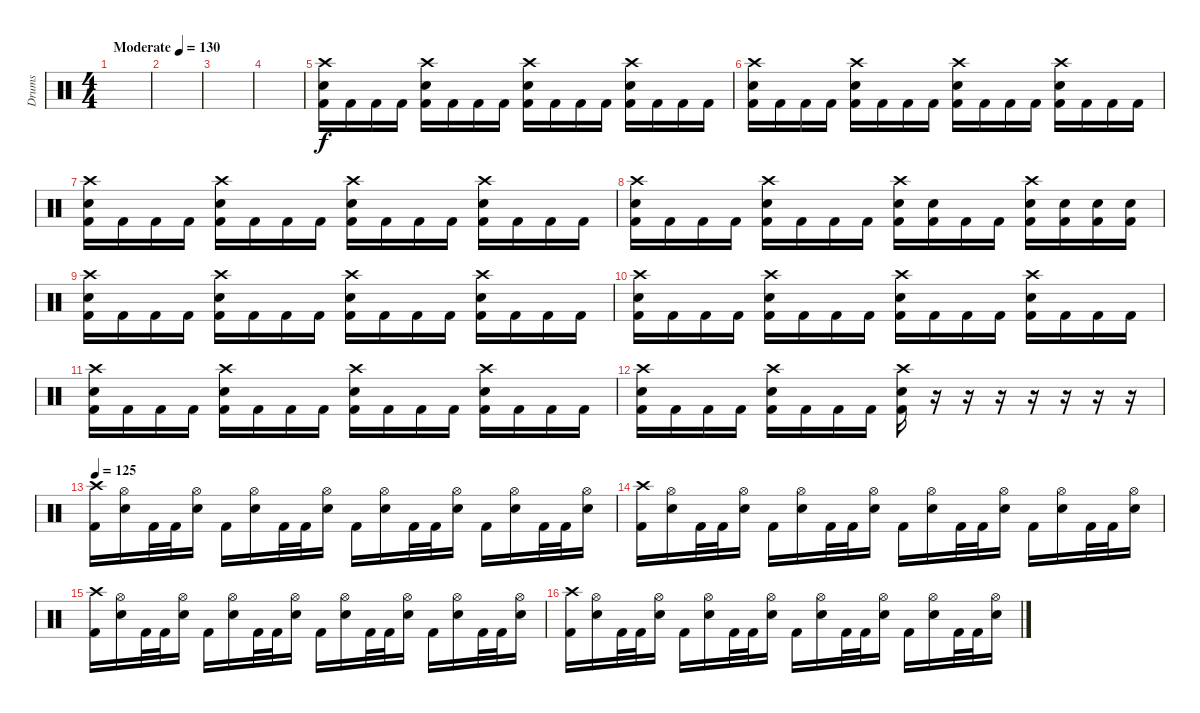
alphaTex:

\track ("Drums" "Drums") {instrument percussion}
\staff {score}
\articulation defaults
\ts (4 4)
\tempo (130 "Moderate")
\clef neutral
\ks c
|
|
|
|
("Crash high (hit)" "Electric Snare (hit)" "Kick (hit) 2").16 "Kick (hit) 2".16 "Kick (hit) 2".16 "Kick (hit) 2".16 ("Crash high (hit)" "Electric Snare (hit)" "Kick (hit) 2").16 "Kick (hit) 2".16 "Kick (hit) 2".16 "Kick (hit) 2".16 ("Crash high (hit)" "Electric Snare (hit)" "Kick (hit) 2").16 "Kick (hit) 2".16 "Kick (hit) 2".16 "Kick (hit) 2".16 ("Crash high (hit)" "Electric Snare (hit)" "Kick (hit) 2").16 "Kick (hit) 2".16 "Kick (hit) 2".16 "Kick (hit) 2".16 |
("Crash high (hit)" "Electric Snare (hit)" "Kick (hit) 2").16 "Kick (hit) 2".16 "Kick (hit) 2".16 "Kick (hit) 2".16 ("Crash high (hit)" "Electric Snare (hit)" "Kick (hit) 2").16 "Kick (hit) 2".16 "Kick (hit) 2".16 "Kick (hit) 2".16 ("Crash high (hit)" "Electric Snare (hit)" "Kick (hit) 2").16 "Kick (hit) 2".16 "Kick (hit) 2".16 "Kick (hit) 2".16 ("Crash high (hit)" "Electric Snare (hit)" "Kick (hit) 2").16 "Kick (hit) 2".16 "Kick (hit) 2".16 "Kick (hit) 2".16 |
("Crash high (hit)" "Electric Snare (hit)" "Kick (hit) 2").16 "Kick (hit) 2".16 "Kick (hit) 2".16 "Kick (hit) 2".16 ("Crash high (hit)" "Electric Snare (hit)" "Kick (hit) 2").16 "Kick (hit) 2".16 "Kick (hit) 2".16 "Kick (hit) 2".16 ("Crash high (hit)" "Electric Snare (hit)" "Kick (hit) 2").16 "Kick (hit) 2".16 "Kick (hit) 2".16 "Kick (hit) 2".16 ("Crash high (hit)" "Electric Snare (hit)" "Kick (hit) 2").16 "Kick (hit) 2".16 "Kick (hit) 2".16 "Kick (hit) 2".16 |
("Crash high (hit)" "Electric Snare (hit)" "Kick (hit) 2").16 "Kick (hit) 2".16 "Kick (hit) 2".16 "Kick (hit) 2".16 ("Crash high (hit)" "Electric Snare (hit)" "Kick (hit) 2").16 "Kick (hit) 2".16 "Kick (hit) 2".16 "Kick (hit) 2".16 ("Crash high (hit)" "Electric Snare (hit)" "Kick (hit) 2").16 ("Electric Snare (hit)" "Kick (hit) 2").16 "Kick (hit) 2".16 "Kick (hit) 2".16 ("Crash high (hit)" "Electric Snare (hit)" "Kick (hit) 2").16 ("Electric Snare (hit)" "Kick (hit) 2").16 ("Electric Snare (hit)" "Kick (hit) 2").16 ("Electric Snare (hit)" "Kick (hit) 2").16 |
("Crash high (hit)" "Electric Snare (hit)" "Kick (hit) 2").16 "Kick (hit) 2".16 "Kick (hit) 2".16 "Kick (hit) 2".16 ("Crash high (hit)" "Electric Snare (hit)" "Kick (hit) 2").16 "Kick (hit) 2".16 "Kick (hit) 2".16 "Kick (hit) 2".16 ("Crash high (hit)" "Electric Snare (hit)" "Kick (hit) 2").16 "Kick (hit) 2".16 "Kick (hit) 2".16 "Kick (hit) 2".16 ("Crash high (hit)" "Electric Snare (hit)" "Kick (hit) 2").16 "Kick (hit) 2".16 "Kick (hit) 2".16 "Kick (hit) 2".16 |
("Crash high (hit)" "Electric Snare (hit)" "Kick (hit) 2").16 "Kick (hit) 2".16 "Kick (hit) 2".16 "Kick (hit) 2".16 ("Crash high (hit)" "Electric Snare (hit)" "Kick (hit) 2").16 "Kick (hit) 2".16 "Kick (hit) 2".16 "Kick (hit) 2".16 ("Crash high (hit)" "Electric Snare (hit)" "Kick (hit) 2").16 "Kick (hit) 2".16 "Kick (hit) 2".16 "Kick (hit) 2".16 ("Crash high (hit)" "Electric Snare (hit)" "Kick (hit) 2").16 "Kick (hit) 2".16 "Kick (hit) 2".16 "Kick (hit) 2".16 |
("Crash high (hit)" "Electric Snare (hit)" "Kick (hit) 2").16 "Kick (hit) 2".16 "Kick (hit) 2".16 "Kick (hit) 2".16 ("Crash high (hit)" "Electric Snare (hit)" "Kick (hit) 2").16 "Kick (hit) 2".16 "Kick (hit) 2".16 "Kick (hit) 2".16 ("Crash high (hit)" "Electric Snare (hit)" "Kick (hit) 2").16 "Kick (hit) 2".16 "Kick (hit) 2".16 "Kick (hit) 2".16 ("Crash high (hit)" "Electric Snare (hit)" "Kick (hit) 2").16 "Kick (hit) 2".16 "Kick (hit) 2".16 "Kick (hit) 2".16 |
("Crash high (hit)" "Electric Snare (hit)" "Kick (hit) 2").16 "Kick (hit) 2".16 "Kick (hit) 2".16 "Kick (hit) 2".16 ("Crash high (hit)" "Electric Snare (hit)" "Kick (hit) 2").16 "Kick (hit) 2".16 "Kick (hit) 2".16 "Kick (hit) 2".16 ("Crash high (hit)" "Electric Snare (hit)" "Kick (hit) 2").16 r.16 r.16 r.16 r.16 r.16 r.16 r.16 |
\tempo 125
("Crash high (hit)" "Kick (hit) 2").16 ("Hi-Hat (open)" "Electric Snare (hit)").16 "Kick (hit) 2".32 "Kick (hit) 2".32 ("Hi-Hat (open)" "Electric Snare (hit)").16 "Kick (hit) 2".16 ("Hi-Hat (open)" "Electric Snare (hit)").16 "Kick (hit) 2".32 "Kick (hit) 2".32 ("Hi-Hat (open)" "Electric Snare (hit)").16 "Kick (hit) 2".16 ("Hi-Hat (open)" "Electric Snare (hit)").16 "Kick (hit) 2".32 "Kick (hit) 2".32 ("Hi-Hat (open)" "Electric Snare (hit)").16 "Kick (hit) 2".16 ("Hi-Hat (open)" "Electric Snare (hit)").16 "Kick (hit) 2".32 "Kick (hit) 2".32 ("Hi-Hat (open)" "Electric Snare (hit)").16 |
("Crash high (hit)" "Kick (hit) 2").16 ("Hi-Hat (open)" "Electric Snare (hit)").16 "Kick (hit) 2".32 "Kick (hit) 2".32 ("Hi-Hat (open)" "Electric Snare (hit)").16 "Kick (hit) 2".16 ("Hi-Hat (open)" "Electric Snare (hit)").16 "Kick (hit) 2".32 "Kick (hit) 2".32 ("Hi-Hat (open)" "Electric Snare (hit)").16 "Kick (hit) 2".16 ("Hi-Hat (open)" "Electric Snare (hit)").16 "Kick (hit) 2".32 "Kick (hit) 2".32 ("Hi-Hat (open)" "Electric Snare (hit)").16 "Kick (hit) 2".16 ("Hi-Hat (open)" "Electric Snare (hit)").16 "Kick (hit) 2".32 "Kick (hit) 2".32 ("Hi-Hat (open)" "Electric Snare (hit)").16 |
("Crash high (hit)" "Kick (hit) 2").16 ("Hi-Hat (open)" "Electric Snare (hit)").16 "Kick (hit) 2".32 "Kick (hit) 2".32 ("Hi-Hat (open)" "Electric Snare (hit)").16 "Kick (hit) 2".16 ("Hi-Hat (open)" "Electric Snare (hit)").16 "Kick (hit) 2".32 "Kick (hit) 2".32 ("Hi-Hat (open)" "Electric Snare (hit)").16 "Kick (hit) 2".16 ("Hi-Hat (open)" "Electric Snare (hit)").16 "Kick (hit) 2".32 "Kick (hit) 2".32 ("Hi-Hat (open)" "Electric Snare (hit)").16 "Kick (hit) 2".16 ("Hi-Hat (open)" "Electric Snare (hit)").16 "Kick (hit) 2".32 "Kick (hit) 2".32 ("Hi-Hat (open)" "Electric Snare (hit)").16 |
("Crash high (hit)" "Kick (hit) 2").16 ("Hi-Hat (open)" "Electric Snare (hit)").16 "Kick (hit) 2".32 "Kick (hit) 2".32 ("Hi-Hat (open)" "Electric Snare (hit)").16 "Kick (hit) 2".16 ("Hi-Hat (open)" "Electric Snare (hit)").16 "Kick (hit) 2".32 "Kick (hit) 2".32 ("Hi-Hat (open)" "Electric Snare (hit)").16 "Kick (hit) 2".16 ("Hi-Hat (open)" "Electric Snare (hit)").16 "Kick (hit) 2".32 "Kick (hit) 2".32 ("Hi-Hat (open)" "Electric Snare (hit)").16 "Kick (hit) 2".16 ("Hi-Hat (open)" "Electric Snare (hit)").16 "Kick (hit) 2".32 "Kick (hit) 2".32 ("Hi-Hat (open)" "Electric Snare (hit)").16
